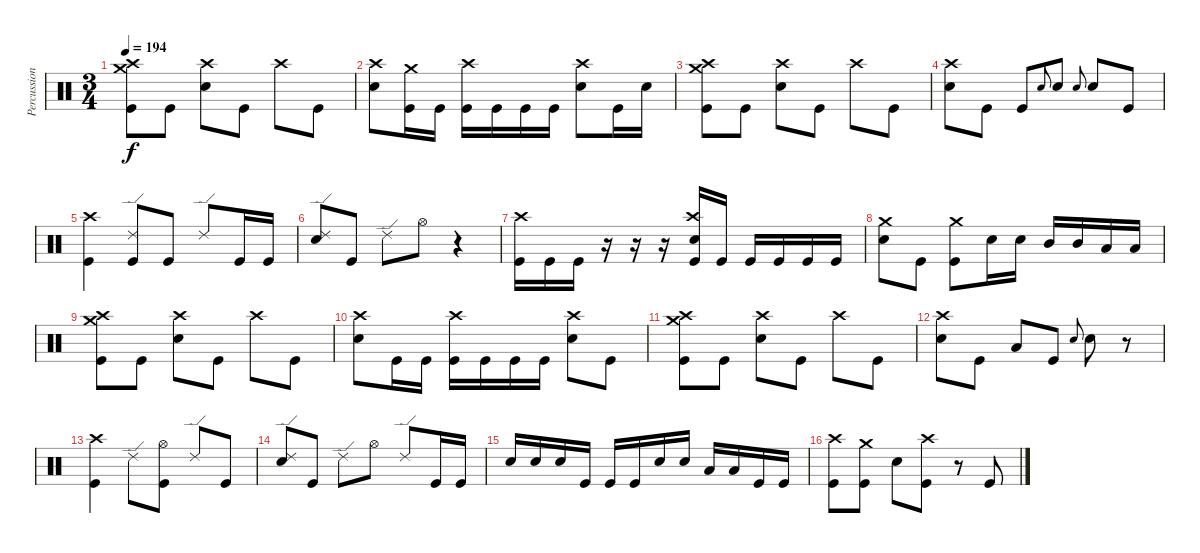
\track ("Percussion" "Percussion") {instrument percussion}
\staff {score}
\articulation defaults
\ts (3 4)
\tempo 194
\clef neutral
\ks c
("Kick (hit)" "Crash high (hit)" "Crash medium (hit)").8{dy f} "Kick (hit)".8 ("Snare (hit) 2" "Crash high (hit)").8 "Kick (hit)".8 "Crash high (hit)".8 "Kick (hit)".8 |
("Snare (hit) 2" "Crash high (hit)").8 ("Kick (hit)" "Crash medium (hit)").16 "Kick (hit)".16 ("Kick (hit)" "Crash high (hit)").16 "Kick (hit)".16 "Kick (hit)".16 "Kick (hit)".16 ("Snare (hit) 2" "Crash high (hit)").8 "Kick (hit)".16 "Snare (hit) 2".16 |
("Kick (hit)" "Crash high (hit)" "Crash medium (hit)").8 "Kick (hit)".8 ("Snare (hit) 2" "Crash high (hit)").8 "Kick (hit)".8 "Crash high (hit)".8 "Kick (hit)".8 |
("Snare (hit) 2" "Crash high (hit)").8 "Kick (hit)".8 "Kick (hit)".8 "Snare (hit) 2".8{gr onbeat} "Snare (hit) 2".8 "Snare (hit) 2".8{gr onbeat} "Snare (hit) 2".8 "Kick (hit)".8 |
("Crash high (hit)" "Kick (hit)").4 ("Ride (edge) 2" "Kick (hit)").8 "Kick (hit)".8 "Ride (edge) 2".8 "Kick (hit)".16 "Kick (hit)".16 |
("Ride (edge) 2" "Snare (hit) 2").8 "Kick (hit)".8 "Ride (edge) 2".8 "Hi-Hat (open)".8 r.4 |
("Crash high (hit)" "Kick (hit)").16 "Kick (hit)".16 "Kick (hit)".16 r.16 r.16 r.16 ("Crash high (hit)" "Snare (hit) 2" "Kick (hit)").16 "Kick (hit)".16 "Kick (hit)".16 "Kick (hit)".16 "Kick (hit)".16 "Kick (hit)".16 |
("Snare (hit) 2" "Crash medium (hit)").8 "Kick (hit)".8 ("Kick (hit)" "Crash medium (hit)").8 "Snare (hit) 2".16 "Snare (hit) 2".16 "Mid Tom (hit)".16 "Mid Tom (hit)".16 "Low Tom (hit)".16 "Low Tom (hit)".16 |
("Kick (hit)" "Crash high (hit)" "Crash medium (hit)").8 "Kick (hit)".8 ("Snare (hit) 2" "Crash high (hit)").8 "Kick (hit)".8 "Crash high (hit)".8 "Kick (hit)".8 |
("Snare (hit) 2" "Crash high (hit)").8 "Kick (hit)".16 "Kick (hit)".16 ("Kick (hit)" "Crash high (hit)").16 "Kick (hit)".16 "Kick (hit)".16 "Kick (hit)".16 ("Snare (hit) 2" "Crash high (hit)").8 "Kick (hit)".8 |
("Kick (hit)" "Crash high (hit)" "Crash medium (hit)").8 "Kick (hit)".8 ("Snare (hit) 2" "Crash high (hit)").8 "Kick (hit)".8 "Crash high (hit)".8 "Kick (hit)".8 |
("Snare (hit) 2" "Crash high (hit)").8 "Kick (hit)".8 "Low Tom (hit)".8 "Kick (hit)".8 "Snare (hit) 2".8{gr onbeat} "Snare (hit) 2".8 r.8 |
("Crash high (hit)" "Kick (hit)").4 "Ride (edge) 2".8 ("Hi-Hat (open)" "Kick (hit)").8 "Ride (edge) 2".8 "Kick (hit)".8 |
("Ride (edge) 2" "Snare (hit) 2").8 "Kick (hit)".8 "Ride (edge) 2".8 "Hi-Hat (open)".8 "Ride (edge) 2".8 "Kick (hit)".16 "Kick (hit)".16 |
"Snare (hit) 2".16 "Snare (hit) 2".16 "Snare (hit) 2".16 "Kick (hit)".16 "Kick (hit)".16 "Kick (hit)".16 "Snare (hit) 2".16 "Snare (hit) 2".16 "Low Tom (hit)".16 "Low Tom (hit)".16 "Kick (hit)".16 "Kick (hit)".16 |
("Crash high (hit)" "Kick (hit)").8 ("Crash medium (hit)" "Kick (hit)").8 "Snare (hit) 2".8 ("Crash high (hit)" "Kick (hit)").8 r.8 "Kick (hit)".8
